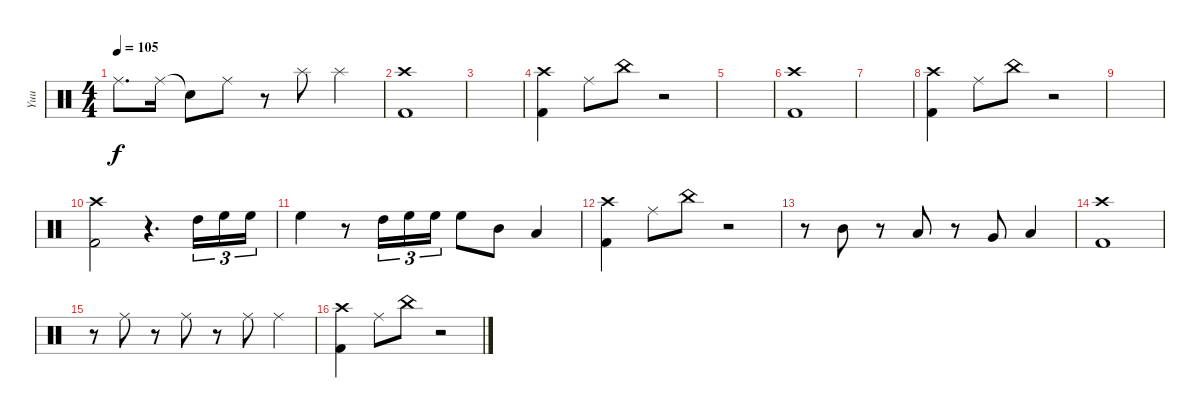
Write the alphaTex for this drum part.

\track ("Yuu" "Yuu") {instrument percussion}
\staff {score}
\articulation defaults
\ts (4 4)
\tempo 105
\clef neutral
\ks c "Ride (middle)".8{d dy f} "Ride (middle)".16 "Snare (hit)"{t}.8 "Ride (middle)".8
r.8 "Splash (hit)".8 "Splash (hit)".4 |
("Crash high (hit)" "Kick (hit) 2").1 |
|
("Crash high (hit)" "Kick (hit) 2").4 "Ride (middle)".8 "China (hit)".8 r.2 |
|
("Crash high (hit)" "Kick (hit) 2").1 |
|
("Crash high (hit)" "Kick (hit) 2").4 "Ride (middle)".8 "China (hit)".8 r.2 |
|
("Crash high (hit)" "Kick (hit) 2").2 r.4{d} "High Tom (hit)".16{tu (3 2)} "High Floor Tom (hit)".16{tu (3 2)} "High Floor Tom (hit)".16{tu (3 2)} |
"High Floor Tom (hit)".4 r.8 "High Tom (hit)".16{tu (3 2)} "High Floor Tom (hit)".16{tu (3 2)} "High Floor Tom (hit)".16{tu (3 2)} "High Floor Tom (hit)".8 "Mid Tom (hit)".8 "Low Tom (hit)".4 |
("Crash high (hit)" "Kick (hit) 2").4 "Ride (middle)".8 "China (hit)".8 r.2 |
r.8 "Mid Tom (hit)".8 r.8 "Low Tom (hit)".8 r.8 "Very Low Tom (hit)".8 "Low Floor Tom (hit)".4 |
("Crash high (hit)" "Kick (hit) 2").1 |
r.8 "Ride (middle)".8 r.8 "Ride (middle)".8 r.8 "Ride (middle)".8 "Ride (middle)".4 |
("Crash high (hit)" "Kick (hit) 2").4 "Ride (middle)".8 "China (hit)".8 r.2
